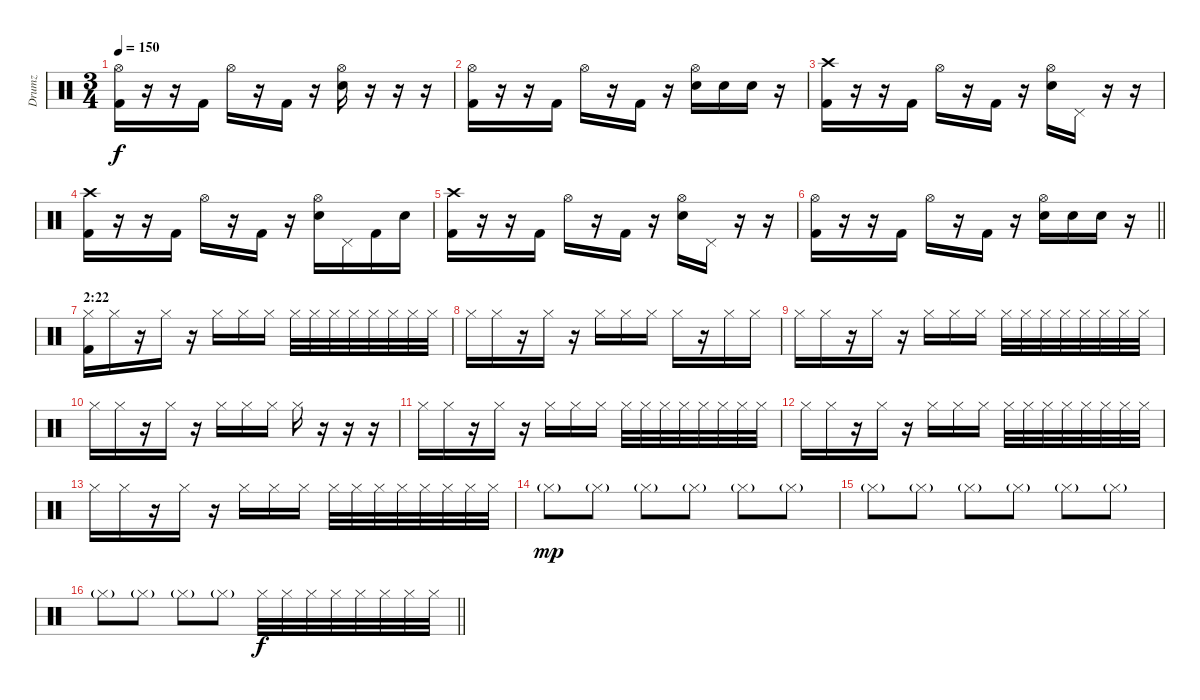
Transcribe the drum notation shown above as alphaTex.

\track ("Drumz" "Drumz") {instrument percussion}
\staff {score}
\articulation defaults
\ts (3 4)
\tempo 150
\clef neutral
\ks c
("Hi-Hat (open)" "Kick (hit) 2").16{dy f} r.16 r.16 "Kick (hit) 2".16 "Hi-Hat (open)".16 r.16 "Kick (hit) 2".16 r.16 ("Hi-Hat (open)" "Electric Snare (hit)").16 r.16 r.16 r.16 |
("Hi-Hat (open)" "Kick (hit) 2").16 r.16 r.16 "Kick (hit) 2".16 "Hi-Hat (open)".16 r.16 "Kick (hit) 2".16 r.16 ("Hi-Hat (open)" "Electric Snare (hit)").16 "Electric Snare (hit)".16 "Electric Snare (hit)".16 r.16 |
("Crash high (hit)" "Kick (hit) 2").16 r.16 r.16 "Kick (hit) 2".16 "Hi-Hat (open)".16 r.16 "Kick (hit) 2".16 r.16 ("Hi-Hat (open)" "Electric Snare (hit)").16 "Pedal Hi-Hat (hit)".16 r.16 r.16 |
("Crash high (hit)" "Kick (hit) 2").16 r.16 r.16 "Kick (hit) 2".16 "Hi-Hat (open)".16 r.16 "Kick (hit) 2".16 r.16 ("Hi-Hat (open)" "Electric Snare (hit)").16 "Pedal Hi-Hat (hit)".16 "Kick (hit) 2".16 "Electric Snare (hit)".16 |
("Crash high (hit)" "Kick (hit) 2").16 r.16 r.16 "Kick (hit) 2".16 "Hi-Hat (open)".16 r.16 "Kick (hit) 2".16 r.16 ("Hi-Hat (open)" "Electric Snare (hit)").16 "Pedal Hi-Hat (hit)".16 r.16 r.16 |
\barLineRight lightlight
("Hi-Hat (open)" "Kick (hit) 2").16 r.16 r.16 "Kick (hit) 2".16 "Hi-Hat (open)".16 r.16 "Kick (hit) 2".16 r.16 ("Hi-Hat (open)" "Electric Snare (hit)").16 "Electric Snare (hit)".16 "Electric Snare (hit)".16 r.16 |
\section ("" "2:22")
("Hi-Hat (closed)" "Kick (hit) 2").16 "Hi-Hat (closed)".16 r.16 "Hi-Hat (closed)".16 r.16 "Hi-Hat (closed)".16 "Hi-Hat (closed)".16 "Hi-Hat (closed)".16 "Hi-Hat (closed)".32 "Hi-Hat (closed)".32 "Hi-Hat (closed)".32 "Hi-Hat (closed)".32 "Hi-Hat (closed)".32 "Hi-Hat (closed)".32 "Hi-Hat (closed)".32 "Hi-Hat (closed)".32 |
"Hi-Hat (closed)".16 "Hi-Hat (closed)".16 r.16 "Hi-Hat (closed)".16 r.16 "Hi-Hat (closed)".16 "Hi-Hat (closed)".16 "Hi-Hat (closed)".16 "Hi-Hat (closed)".16 r.16 "Hi-Hat (closed)".16 "Hi-Hat (closed)".16 |
"Hi-Hat (closed)".16 "Hi-Hat (closed)".16 r.16 "Hi-Hat (closed)".16 r.16 "Hi-Hat (closed)".16 "Hi-Hat (closed)".16 "Hi-Hat (closed)".16 "Hi-Hat (closed)".32 "Hi-Hat (closed)".32 "Hi-Hat (closed)".32 "Hi-Hat (closed)".32 "Hi-Hat (closed)".32 "Hi-Hat (closed)".32 "Hi-Hat (closed)".32 "Hi-Hat (closed)".32 |
"Hi-Hat (closed)".16 "Hi-Hat (closed)".16 r.16 "Hi-Hat (closed)".16 r.16 "Hi-Hat (closed)".16 "Hi-Hat (closed)".16 "Hi-Hat (closed)".16 "Hi-Hat (closed)".16 r.16 r.16 r.16 |
"Hi-Hat (closed)".16 "Hi-Hat (closed)".16 r.16 "Hi-Hat (closed)".16 r.16 "Hi-Hat (closed)".16 "Hi-Hat (closed)".16 "Hi-Hat (closed)".16 "Hi-Hat (closed)".32 "Hi-Hat (closed)".32 "Hi-Hat (closed)".32 "Hi-Hat (closed)".32 "Hi-Hat (closed)".32 "Hi-Hat (closed)".32 "Hi-Hat (closed)".32 "Hi-Hat (closed)".32 |
"Hi-Hat (closed)".16 "Hi-Hat (closed)".16 r.16 "Hi-Hat (closed)".16 r.16 "Hi-Hat (closed)".16 "Hi-Hat (closed)".16 "Hi-Hat (closed)".16 "Hi-Hat (closed)".32 "Hi-Hat (closed)".32 "Hi-Hat (closed)".32 "Hi-Hat (closed)".32 "Hi-Hat (closed)".32 "Hi-Hat (closed)".32 "Hi-Hat (closed)".32 "Hi-Hat (closed)".32 |
"Hi-Hat (closed)".16 "Hi-Hat (closed)".16 r.16 "Hi-Hat (closed)".16 r.16 "Hi-Hat (closed)".16 "Hi-Hat (closed)".16 "Hi-Hat (closed)".16 "Hi-Hat (closed)".32 "Hi-Hat (closed)".32 "Hi-Hat (closed)".32 "Hi-Hat (closed)".32 "Hi-Hat (closed)".32 "Hi-Hat (closed)".32 "Hi-Hat (closed)".32 "Hi-Hat (closed)".32 |
"Hi-Hat (closed)"{g}.8{dy mp} "Hi-Hat (closed)"{g}.8 "Hi-Hat (closed)"{g}.8 "Hi-Hat (closed)"{g}.8 "Hi-Hat (closed)"{g}.8 "Hi-Hat (closed)"{g}.8 |
"Hi-Hat (closed)"{g}.8 "Hi-Hat (closed)"{g}.8 "Hi-Hat (closed)"{g}.8 "Hi-Hat (closed)"{g}.8 "Hi-Hat (closed)"{g}.8 "Hi-Hat (closed)"{g}.8 |
\barLineRight lightlight "Hi-Hat (closed)"{g}.8 "Hi-Hat (closed)"{g}.8 "Hi-Hat (closed)"{g}.8 "Hi-Hat (closed)"{g}.8 "Hi-Hat (closed)".32{dy f} "Hi-Hat (closed)".32 "Hi-Hat (closed)".32 "Hi-Hat (closed)".32 "Hi-Hat (closed)".32 "Hi-Hat (closed)".32 "Hi-Hat (closed)".32 "Hi-Hat (closed)".32
